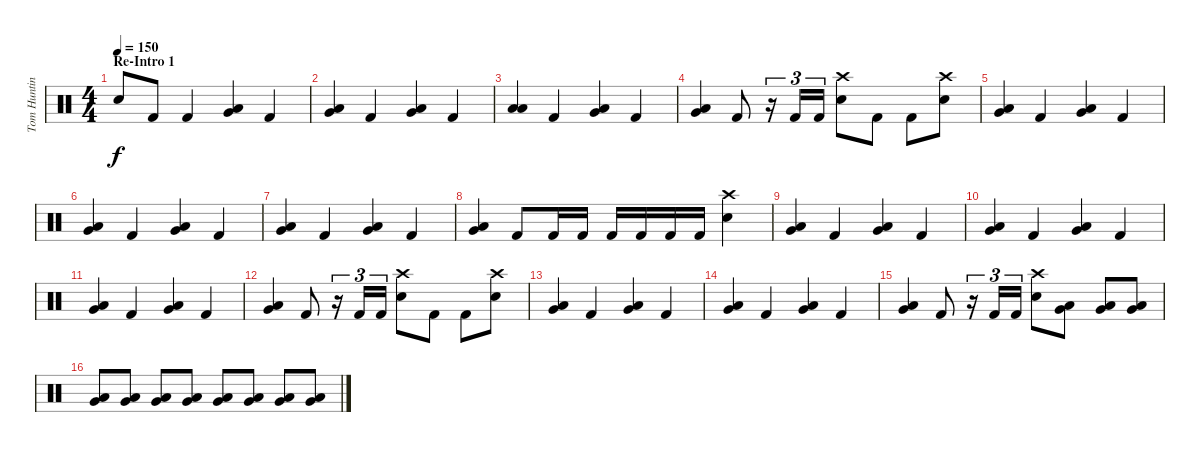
\track ("Tom Hunting" "Tom Huntin") {instrument percussion}
\staff {score}
\articulation defaults
\ts (4 4)
\section ("" "Re-Intro 1")
\tempo 150
\clef neutral
\ks c "Snare (hit) 2".8{dy f} "Kick (hit) 2".8 "Kick (hit) 2".4
("Low Tom (hit)" "Very Low Tom (hit)").4 "Kick (hit) 2".4 |
("Very Low Tom (hit)" "Low Floor Tom (hit)").4 "Kick (hit) 2".4 ("Low Tom (hit)" "Very Low Tom (hit)").4 "Kick (hit) 2".4 |
("Low Tom (hit)" "Low Floor Tom (hit)").4 "Kick (hit) 2".4 ("Low Tom (hit)" "Very Low Tom (hit)").4 "Kick (hit) 2".4 |
("Very Low Tom (hit)" "Low Floor Tom (hit)").4 "Kick (hit) 2".8 r.16{tu (3 2)} "Kick (hit) 2".16{tu (3 2)} "Kick (hit) 2".16{tu (3 2)} ("Crash high (hit)" "Snare (hit) 2").8 "Kick (hit) 2".8 "Kick (hit) 2".8 ("Crash high (hit)" "Snare (hit) 2").8 |
("Very Low Tom (hit)" "Low Floor Tom (hit)").4 "Kick (hit) 2".4 ("Low Tom (hit)" "Very Low Tom (hit)").4 "Kick (hit) 2".4 |
("Very Low Tom (hit)" "Low Floor Tom (hit)").4 "Kick (hit) 2".4 ("Low Tom (hit)" "Very Low Tom (hit)").4 "Kick (hit) 2".4 |
("Very Low Tom (hit)" "Low Floor Tom (hit)").4 "Kick (hit) 2".4 ("Low Tom (hit)" "Very Low Tom (hit)").4 "Kick (hit) 2".4 |
("Very Low Tom (hit)" "Low Floor Tom (hit)").4 "Kick (hit) 2".8 "Kick (hit) 2".16 "Kick (hit) 2".16 "Kick (hit) 2".16 "Kick (hit) 2".16 "Kick (hit) 2".16 "Kick (hit) 2".16 ("Crash high (hit)" "Snare (hit) 2").4 |
("Very Low Tom (hit)" "Low Floor Tom (hit)").4 "Kick (hit) 2".4 ("Low Tom (hit)" "Very Low Tom (hit)").4 "Kick (hit) 2".4 |
("Very Low Tom (hit)" "Low Floor Tom (hit)").4 "Kick (hit) 2".4 ("Low Tom (hit)" "Very Low Tom (hit)").4 "Kick (hit) 2".4 |
("Very Low Tom (hit)" "Low Floor Tom (hit)").4 "Kick (hit) 2".4 ("Low Tom (hit)" "Very Low Tom (hit)").4 "Kick (hit) 2".4 |
("Very Low Tom (hit)" "Low Floor Tom (hit)").4 "Kick (hit) 2".8 r.16{tu (3 2)} "Kick (hit) 2".16{tu (3 2)} "Kick (hit) 2".16{tu (3 2)} ("Crash high (hit)" "Snare (hit) 2").8 "Kick (hit) 2".8 "Kick (hit) 2".8 ("Crash high (hit)" "Snare (hit) 2").8 |
("Low Tom (hit)" "Very Low Tom (hit)").4 "Kick (hit) 2".4 ("Very Low Tom (hit)" "Low Floor Tom (hit)").4 "Kick (hit) 2".4 |
("Low Tom (hit)" "Very Low Tom (hit)").4 "Kick (hit) 2".4 ("Very Low Tom (hit)" "Low Floor Tom (hit)").4 "Kick (hit) 2".4 |
("Low Tom (hit)" "Very Low Tom (hit)").4 "Kick (hit) 2".8 r.16{tu (3 2)} "Kick (hit) 2".16{tu (3 2)} "Kick (hit) 2".16{tu (3 2)} ("Crash high (hit)" "Snare (hit) 2").8 ("Low Tom (hit)" "Very Low Tom (hit)").8 ("Low Tom (hit)" "Very Low Tom (hit)").8 ("Low Tom (hit)" "Very Low Tom (hit)").8 |
("Low Tom (hit)" "Very Low Tom (hit)").8 ("Low Tom (hit)" "Very Low Tom (hit)").8 ("Low Tom (hit)" "Very Low Tom (hit)").8 ("Low Tom (hit)" "Very Low Tom (hit)").8 ("Low Tom (hit)" "Very Low Tom (hit)").8 ("Low Tom (hit)" "Very Low Tom (hit)").8 ("Low Tom (hit)" "Very Low Tom (hit)").8 ("Low Tom (hit)" "Very Low Tom (hit)").8
